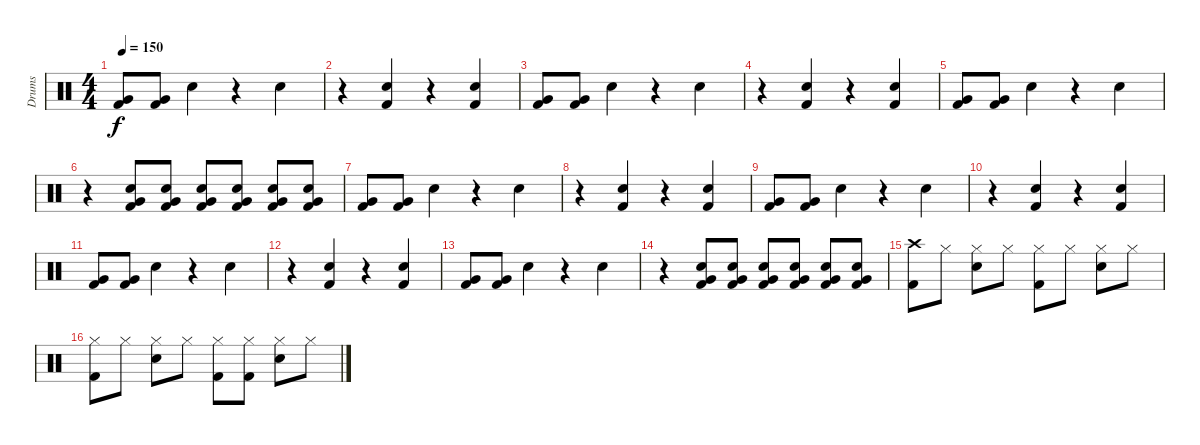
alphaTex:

\track ("Drums" "Drums") {instrument percussion}
\staff {score}
\articulation defaults
\ts (4 4)
\tempo 150
\clef neutral
\ks c
("Very Low Tom (hit)" "Kick (hit) 2").8{dy f} ("Very Low Tom (hit)" "Kick (hit) 2").8 "Electric Snare (hit)".4 r.4 "Electric Snare (hit)".4 |
r.4 ("Electric Snare (hit)" "Kick (hit) 2").4 r.4 ("Electric Snare (hit)" "Kick (hit) 2").4 |
("Very Low Tom (hit)" "Kick (hit) 2").8 ("Very Low Tom (hit)" "Kick (hit) 2").8 "Electric Snare (hit)".4 r.4 "Electric Snare (hit)".4 |
r.4 ("Electric Snare (hit)" "Kick (hit) 2").4 r.4 ("Electric Snare (hit)" "Kick (hit) 2").4 |
("Very Low Tom (hit)" "Kick (hit) 2").8 ("Very Low Tom (hit)" "Kick (hit) 2").8 "Electric Snare (hit)".4 r.4 "Electric Snare (hit)".4 |
r.4 ("Electric Snare (hit)" "Very Low Tom (hit)" "Kick (hit) 2").8 ("Electric Snare (hit)" "Very Low Tom (hit)" "Kick (hit) 2").8 ("Electric Snare (hit)" "Very Low Tom (hit)" "Kick (hit) 2").8 ("Electric Snare (hit)" "Very Low Tom (hit)" "Kick (hit) 2").8 ("Electric Snare (hit)" "Very Low Tom (hit)" "Kick (hit) 2").8 ("Electric Snare (hit)" "Very Low Tom (hit)" "Kick (hit) 2").8 |
("Very Low Tom (hit)" "Kick (hit) 2").8 ("Very Low Tom (hit)" "Kick (hit) 2").8 "Electric Snare (hit)".4 r.4 "Electric Snare (hit)".4 |
r.4 ("Electric Snare (hit)" "Kick (hit) 2").4 r.4 ("Electric Snare (hit)" "Kick (hit) 2").4 |
("Very Low Tom (hit)" "Kick (hit) 2").8 ("Very Low Tom (hit)" "Kick (hit) 2").8 "Electric Snare (hit)".4 r.4 "Electric Snare (hit)".4 |
r.4 ("Electric Snare (hit)" "Kick (hit) 2").4 r.4 ("Electric Snare (hit)" "Kick (hit) 2").4 |
("Very Low Tom (hit)" "Kick (hit) 2").8 ("Very Low Tom (hit)" "Kick (hit) 2").8 "Electric Snare (hit)".4 r.4 "Electric Snare (hit)".4 |
r.4 ("Electric Snare (hit)" "Kick (hit) 2").4 r.4 ("Electric Snare (hit)" "Kick (hit) 2").4 |
("Very Low Tom (hit)" "Kick (hit) 2").8 ("Very Low Tom (hit)" "Kick (hit) 2").8 "Electric Snare (hit)".4 r.4 "Electric Snare (hit)".4 |
r.4 ("Electric Snare (hit)" "Very Low Tom (hit)" "Kick (hit) 2").8 ("Electric Snare (hit)" "Very Low Tom (hit)" "Kick (hit) 2").8 ("Electric Snare (hit)" "Very Low Tom (hit)" "Kick (hit) 2").8 ("Electric Snare (hit)" "Very Low Tom (hit)" "Kick (hit) 2").8 ("Electric Snare (hit)" "Very Low Tom (hit)" "Kick (hit) 2").8 ("Electric Snare (hit)" "Very Low Tom (hit)" "Kick (hit) 2").8 |
("Crash high (hit)" "Kick (hit) 2").8 "Hi-Hat (closed)".8 ("Hi-Hat (closed)" "Electric Snare (hit)").8 "Hi-Hat (closed)".8 ("Hi-Hat (closed)" "Kick (hit) 2").8 "Hi-Hat (closed)".8 ("Hi-Hat (closed)" "Electric Snare (hit)").8 "Hi-Hat (closed)".8 |
("Hi-Hat (closed)" "Kick (hit) 2").8 "Hi-Hat (closed)".8 ("Hi-Hat (closed)" "Electric Snare (hit)").8 "Hi-Hat (closed)".8 ("Hi-Hat (closed)" "Kick (hit) 2").8 ("Hi-Hat (closed)" "Kick (hit) 2").8 ("Hi-Hat (closed)" "Electric Snare (hit)").8 "Hi-Hat (closed)".8
